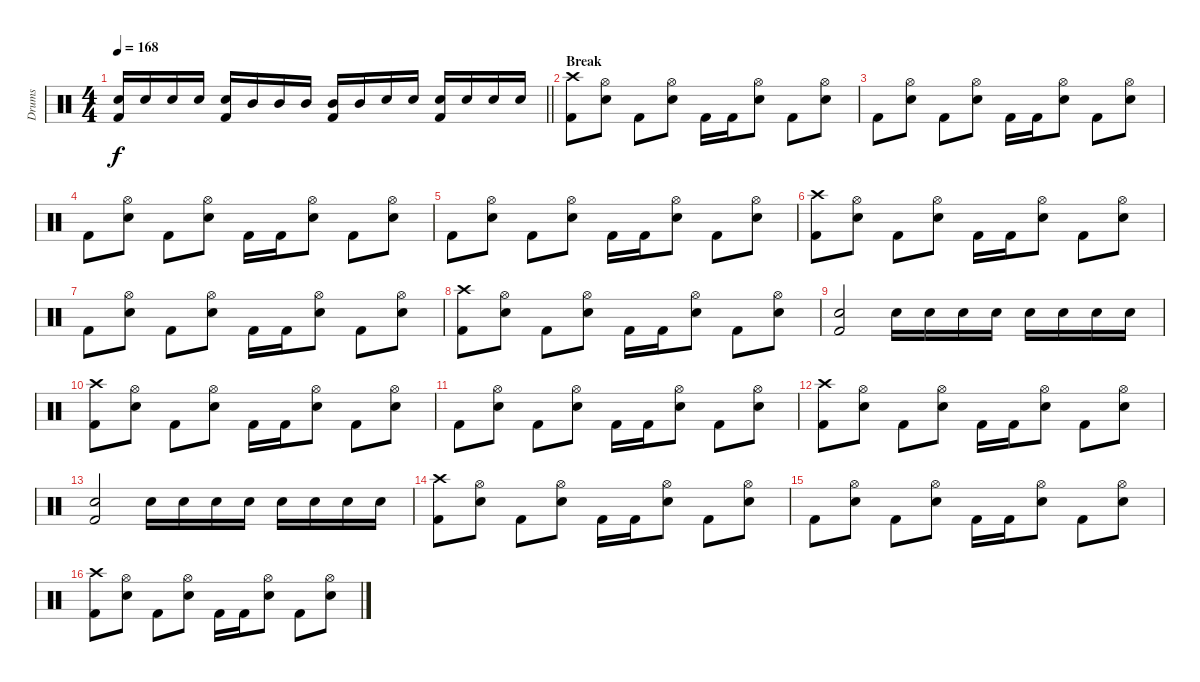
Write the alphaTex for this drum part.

\track ("Drums" "Drums") {instrument percussion}
\staff {score}
\articulation defaults
\ts (4 4)
\tempo 168
\clef neutral
\barLineRight lightlight
\ks c
("Kick (hit) 2" "Snare (hit) 2").16{dy f} "Snare (hit) 2".16 "Snare (hit) 2".16 "Snare (hit) 2".16 ("Kick (hit) 2" "Snare (hit) 2").16 "Mid Tom (hit)".16 "Mid Tom (hit)".16 "Mid Tom (hit)".16 ("Kick (hit) 2" "Mid Tom (hit)").16 "Mid Tom (hit)".16 "Snare (hit) 2".16 "Snare (hit) 2".16 ("Kick (hit) 2" "Snare (hit) 2").16 "Snare (hit) 2".16 "Snare (hit) 2".16 "Snare (hit) 2".16 |
\section ("" "Break")
("Kick (hit) 2" "Crash high (hit)").8 ("Snare (hit) 2" "Hi-Hat (open)").8 "Kick (hit) 2".8 ("Snare (hit) 2" "Hi-Hat (open)").8 "Kick (hit) 2".16 "Kick (hit) 2".16 ("Snare (hit) 2" "Hi-Hat (open)").8 "Kick (hit) 2".8 ("Snare (hit) 2" "Hi-Hat (open)").8 |
"Kick (hit) 2".8 ("Snare (hit) 2" "Hi-Hat (open)").8 "Kick (hit) 2".8 ("Snare (hit) 2" "Hi-Hat (open)").8 "Kick (hit) 2".16 "Kick (hit) 2".16 ("Snare (hit) 2" "Hi-Hat (open)").8 "Kick (hit) 2".8 ("Snare (hit) 2" "Hi-Hat (open)").8 |
"Kick (hit) 2".8 ("Snare (hit) 2" "Hi-Hat (open)").8 "Kick (hit) 2".8 ("Snare (hit) 2" "Hi-Hat (open)").8 "Kick (hit) 2".16 "Kick (hit) 2".16 ("Snare (hit) 2" "Hi-Hat (open)").8 "Kick (hit) 2".8 ("Snare (hit) 2" "Hi-Hat (open)").8 |
"Kick (hit) 2".8 ("Snare (hit) 2" "Hi-Hat (open)").8 "Kick (hit) 2".8 ("Snare (hit) 2" "Hi-Hat (open)").8 "Kick (hit) 2".16 "Kick (hit) 2".16 ("Snare (hit) 2" "Hi-Hat (open)").8 "Kick (hit) 2".8 ("Snare (hit) 2" "Hi-Hat (open)").8 |
("Kick (hit) 2" "Crash high (hit)").8 ("Snare (hit) 2" "Hi-Hat (open)").8 "Kick (hit) 2".8 ("Snare (hit) 2" "Hi-Hat (open)").8 "Kick (hit) 2".16 "Kick (hit) 2".16 ("Snare (hit) 2" "Hi-Hat (open)").8 "Kick (hit) 2".8 ("Snare (hit) 2" "Hi-Hat (open)").8 |
"Kick (hit) 2".8 ("Snare (hit) 2" "Hi-Hat (open)").8 "Kick (hit) 2".8 ("Snare (hit) 2" "Hi-Hat (open)").8 "Kick (hit) 2".16 "Kick (hit) 2".16 ("Snare (hit) 2" "Hi-Hat (open)").8 "Kick (hit) 2".8 ("Snare (hit) 2" "Hi-Hat (open)").8 |
("Kick (hit) 2" "Crash high (hit)").8 ("Snare (hit) 2" "Hi-Hat (open)").8 "Kick (hit) 2".8 ("Snare (hit) 2" "Hi-Hat (open)").8 "Kick (hit) 2".16 "Kick (hit) 2".16 ("Snare (hit) 2" "Hi-Hat (open)").8 "Kick (hit) 2".8 ("Snare (hit) 2" "Hi-Hat (open)").8 |
("Kick (hit) 2" "Snare (hit) 2").2 "Snare (hit) 2".16 "Snare (hit) 2".16 "Snare (hit) 2".16 "Snare (hit) 2".16 "Snare (hit) 2".16 "Snare (hit) 2".16 "Snare (hit) 2".16 "Snare (hit) 2".16 |
("Kick (hit) 2" "Crash high (hit)").8 ("Snare (hit) 2" "Hi-Hat (open)").8 "Kick (hit) 2".8 ("Snare (hit) 2" "Hi-Hat (open)").8 "Kick (hit) 2".16 "Kick (hit) 2".16 ("Snare (hit) 2" "Hi-Hat (open)").8 "Kick (hit) 2".8 ("Snare (hit) 2" "Hi-Hat (open)").8 |
"Kick (hit) 2".8 ("Snare (hit) 2" "Hi-Hat (open)").8 "Kick (hit) 2".8 ("Snare (hit) 2" "Hi-Hat (open)").8 "Kick (hit) 2".16 "Kick (hit) 2".16 ("Snare (hit) 2" "Hi-Hat (open)").8 "Kick (hit) 2".8 ("Snare (hit) 2" "Hi-Hat (open)").8 |
("Kick (hit) 2" "Crash high (hit)").8 ("Snare (hit) 2" "Hi-Hat (open)").8 "Kick (hit) 2".8 ("Snare (hit) 2" "Hi-Hat (open)").8 "Kick (hit) 2".16 "Kick (hit) 2".16 ("Snare (hit) 2" "Hi-Hat (open)").8 "Kick (hit) 2".8 ("Snare (hit) 2" "Hi-Hat (open)").8 |
("Kick (hit) 2" "Snare (hit) 2").2 "Snare (hit) 2".16 "Snare (hit) 2".16 "Snare (hit) 2".16 "Snare (hit) 2".16 "Snare (hit) 2".16 "Snare (hit) 2".16 "Snare (hit) 2".16 "Snare (hit) 2".16 |
("Kick (hit) 2" "Crash high (hit)").8 ("Snare (hit) 2" "Hi-Hat (open)").8 "Kick (hit) 2".8 ("Snare (hit) 2" "Hi-Hat (open)").8 "Kick (hit) 2".16 "Kick (hit) 2".16 ("Snare (hit) 2" "Hi-Hat (open)").8 "Kick (hit) 2".8 ("Snare (hit) 2" "Hi-Hat (open)").8 |
"Kick (hit) 2".8 ("Snare (hit) 2" "Hi-Hat (open)").8 "Kick (hit) 2".8 ("Snare (hit) 2" "Hi-Hat (open)").8 "Kick (hit) 2".16 "Kick (hit) 2".16 ("Snare (hit) 2" "Hi-Hat (open)").8 "Kick (hit) 2".8 ("Snare (hit) 2" "Hi-Hat (open)").8 |
("Kick (hit) 2" "Crash high (hit)").8 ("Snare (hit) 2" "Hi-Hat (open)").8 "Kick (hit) 2".8 ("Snare (hit) 2" "Hi-Hat (open)").8 "Kick (hit) 2".16 "Kick (hit) 2".16 ("Snare (hit) 2" "Hi-Hat (open)").8 "Kick (hit) 2".8 ("Snare (hit) 2" "Hi-Hat (open)").8
